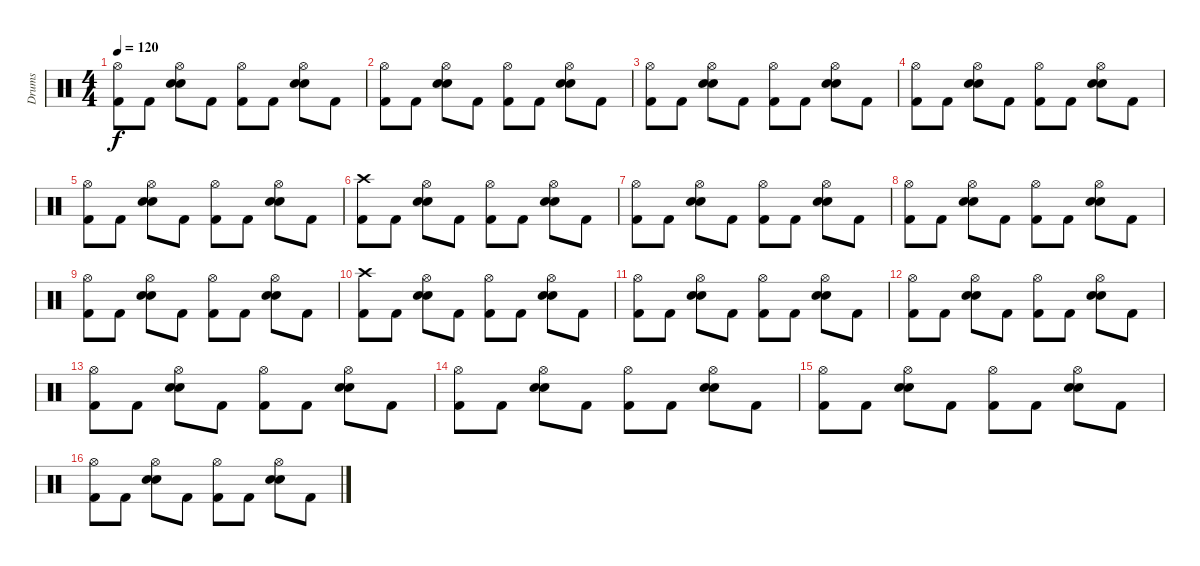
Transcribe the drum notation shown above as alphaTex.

\track ("Drums" "Drums") {instrument percussion}
\staff {score}
\articulation defaults
\ts (4 4)
\tempo 120
\clef neutral
\ks c
("Hi-Hat (open)" "Kick (hit) 2").8{dy f} "Kick (hit) 2".8 ("Hi-Hat (open)" "Electric Snare (hit)" "Snare (hit) 2").8 "Kick (hit) 2".8 ("Hi-Hat (open)" "Kick (hit) 2").8 "Kick (hit) 2".8 ("Hi-Hat (open)" "Electric Snare (hit)" "Snare (hit) 2").8 "Kick (hit) 2".8 |
("Hi-Hat (open)" "Kick (hit) 2").8 "Kick (hit) 2".8 ("Hi-Hat (open)" "Electric Snare (hit)" "Snare (hit) 2").8 "Kick (hit) 2".8 ("Hi-Hat (open)" "Kick (hit) 2").8 "Kick (hit) 2".8 ("Hi-Hat (open)" "Electric Snare (hit)" "Snare (hit) 2").8 "Kick (hit) 2".8 |
("Hi-Hat (open)" "Kick (hit) 2").8 "Kick (hit) 2".8 ("Hi-Hat (open)" "Electric Snare (hit)" "Snare (hit) 2").8 "Kick (hit) 2".8 ("Hi-Hat (open)" "Kick (hit) 2").8 "Kick (hit) 2".8 ("Hi-Hat (open)" "Electric Snare (hit)" "Snare (hit) 2").8 "Kick (hit) 2".8 |
("Hi-Hat (open)" "Kick (hit) 2").8 "Kick (hit) 2".8 ("Hi-Hat (open)" "Electric Snare (hit)" "Snare (hit) 2").8 "Kick (hit) 2".8 ("Hi-Hat (open)" "Kick (hit) 2").8 "Kick (hit) 2".8 ("Hi-Hat (open)" "Electric Snare (hit)" "Snare (hit) 2").8 "Kick (hit) 2".8 |
("Hi-Hat (open)" "Kick (hit) 2").8 "Kick (hit) 2".8 ("Hi-Hat (open)" "Electric Snare (hit)" "Snare (hit) 2").8 "Kick (hit) 2".8 ("Hi-Hat (open)" "Kick (hit) 2").8 "Kick (hit) 2".8 ("Hi-Hat (open)" "Electric Snare (hit)" "Snare (hit) 2").8 "Kick (hit) 2".8 |
("Crash high (hit)" "Kick (hit) 2").8 "Kick (hit) 2".8 ("Hi-Hat (open)" "Electric Snare (hit)" "Snare (hit) 2").8 "Kick (hit) 2".8 ("Hi-Hat (open)" "Kick (hit) 2").8 "Kick (hit) 2".8 ("Hi-Hat (open)" "Electric Snare (hit)" "Snare (hit) 2").8 "Kick (hit) 2".8 |
("Hi-Hat (open)" "Kick (hit) 2").8 "Kick (hit) 2".8 ("Hi-Hat (open)" "Electric Snare (hit)" "Snare (hit) 2").8 "Kick (hit) 2".8 ("Hi-Hat (open)" "Kick (hit) 2").8 "Kick (hit) 2".8 ("Hi-Hat (open)" "Electric Snare (hit)" "Snare (hit) 2").8 "Kick (hit) 2".8 |
("Hi-Hat (open)" "Kick (hit) 2").8 "Kick (hit) 2".8 ("Hi-Hat (open)" "Electric Snare (hit)" "Snare (hit) 2").8 "Kick (hit) 2".8 ("Hi-Hat (open)" "Kick (hit) 2").8 "Kick (hit) 2".8 ("Hi-Hat (open)" "Electric Snare (hit)" "Snare (hit) 2").8 "Kick (hit) 2".8 |
("Hi-Hat (open)" "Kick (hit) 2").8 "Kick (hit) 2".8 ("Hi-Hat (open)" "Electric Snare (hit)" "Snare (hit) 2").8 "Kick (hit) 2".8 ("Hi-Hat (open)" "Kick (hit) 2").8 "Kick (hit) 2".8 ("Hi-Hat (open)" "Electric Snare (hit)" "Snare (hit) 2").8 "Kick (hit) 2".8 |
("Crash high (hit)" "Kick (hit) 2").8 "Kick (hit) 2".8 ("Hi-Hat (open)" "Electric Snare (hit)" "Snare (hit) 2").8 "Kick (hit) 2".8 ("Hi-Hat (open)" "Kick (hit) 2").8 "Kick (hit) 2".8 ("Hi-Hat (open)" "Electric Snare (hit)" "Snare (hit) 2").8 "Kick (hit) 2".8 |
("Hi-Hat (open)" "Kick (hit) 2").8 "Kick (hit) 2".8 ("Hi-Hat (open)" "Electric Snare (hit)" "Snare (hit) 2").8 "Kick (hit) 2".8 ("Hi-Hat (open)" "Kick (hit) 2").8 "Kick (hit) 2".8 ("Hi-Hat (open)" "Electric Snare (hit)" "Snare (hit) 2").8 "Kick (hit) 2".8 |
("Hi-Hat (open)" "Kick (hit) 2").8 "Kick (hit) 2".8 ("Hi-Hat (open)" "Electric Snare (hit)" "Snare (hit) 2").8 "Kick (hit) 2".8 ("Hi-Hat (open)" "Kick (hit) 2").8 "Kick (hit) 2".8 ("Hi-Hat (open)" "Electric Snare (hit)" "Snare (hit) 2").8 "Kick (hit) 2".8 |
("Hi-Hat (open)" "Kick (hit) 2").8 "Kick (hit) 2".8 ("Hi-Hat (open)" "Electric Snare (hit)" "Snare (hit) 2").8 "Kick (hit) 2".8 ("Hi-Hat (open)" "Kick (hit) 2").8 "Kick (hit) 2".8 ("Hi-Hat (open)" "Electric Snare (hit)" "Snare (hit) 2").8 "Kick (hit) 2".8 |
("Hi-Hat (open)" "Kick (hit) 2").8 "Kick (hit) 2".8 ("Hi-Hat (open)" "Electric Snare (hit)" "Snare (hit) 2").8 "Kick (hit) 2".8 ("Hi-Hat (open)" "Kick (hit) 2").8 "Kick (hit) 2".8 ("Hi-Hat (open)" "Electric Snare (hit)" "Snare (hit) 2").8 "Kick (hit) 2".8 |
("Hi-Hat (open)" "Kick (hit) 2").8 "Kick (hit) 2".8 ("Hi-Hat (open)" "Electric Snare (hit)" "Snare (hit) 2").8 "Kick (hit) 2".8 ("Hi-Hat (open)" "Kick (hit) 2").8 "Kick (hit) 2".8 ("Hi-Hat (open)" "Electric Snare (hit)" "Snare (hit) 2").8 "Kick (hit) 2".8 |
("Hi-Hat (open)" "Kick (hit) 2").8 "Kick (hit) 2".8 ("Hi-Hat (open)" "Electric Snare (hit)" "Snare (hit) 2").8 "Kick (hit) 2".8 ("Hi-Hat (open)" "Kick (hit) 2").8 "Kick (hit) 2".8 ("Hi-Hat (open)" "Electric Snare (hit)" "Snare (hit) 2").8 "Kick (hit) 2".8
